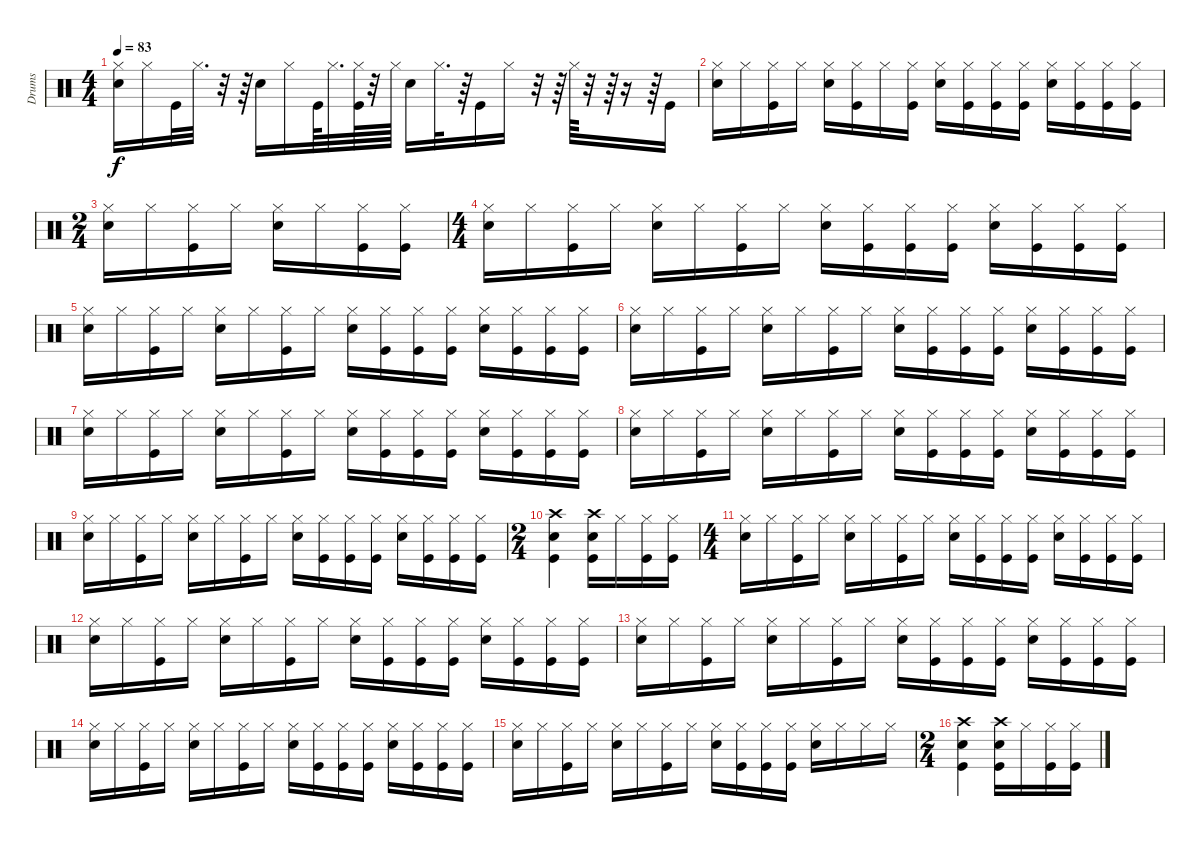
\track ("Drums" "Drums") {instrument percussion}
\staff {score}
\articulation defaults
\ts (4 4)
\tempo 83
\clef neutral
\ks c
("Snare (hit) 2" "Hi-Hat (closed)").16{dy f} "Hi-Hat (closed)".16 "Kick (hit)".32 "Hi-Hat (closed)".32{d} r.32 r.64 "Snare (hit) 2".16 "Hi-Hat (closed)".16 "Kick (hit)".64 "Hi-Hat (closed)".32{d} ("Kick (hit)" "Hi-Hat (closed)").64 r.32 "Hi-Hat (closed)".64 "Snare (hit) 2".16 "Hi-Hat (closed)".32{d} r.64 "Kick (hit)".16 "Hi-Hat (closed)".16 r.32 r.64 "Hi-Hat (closed)".64 r.32 r.64 r.16 r.64 "Kick (hit)".16 |
("Snare (hit) 2" "Hi-Hat (closed)").16 "Hi-Hat (closed)".16 ("Kick (hit)" "Hi-Hat (closed)").16 "Hi-Hat (closed)".16 ("Snare (hit) 2" "Hi-Hat (closed)").16 ("Kick (hit)" "Hi-Hat (closed)").16 "Hi-Hat (closed)".16 ("Kick (hit)" "Hi-Hat (closed)").16 ("Snare (hit) 2" "Hi-Hat (closed)").16 ("Kick (hit)" "Hi-Hat (closed)").16 ("Kick (hit)" "Hi-Hat (closed)").16 ("Kick (hit)" "Hi-Hat (closed)").16 ("Snare (hit) 2" "Hi-Hat (closed)").16 ("Kick (hit)" "Hi-Hat (closed)").16 ("Kick (hit)" "Hi-Hat (closed)").16 ("Kick (hit)" "Hi-Hat (closed)").16 |
\ts (2 4)
("Snare (hit) 2" "Hi-Hat (closed)").16 "Hi-Hat (closed)".16 ("Kick (hit)" "Hi-Hat (closed)").16 "Hi-Hat (closed)".16 ("Snare (hit) 2" "Hi-Hat (closed)").16 "Hi-Hat (closed)".16 ("Kick (hit)" "Hi-Hat (closed)").16 ("Kick (hit)" "Hi-Hat (closed)").16 |
\ts (4 4)
("Snare (hit) 2" "Hi-Hat (closed)").16 "Hi-Hat (closed)".16 ("Kick (hit)" "Hi-Hat (closed)").16 "Hi-Hat (closed)".16 ("Snare (hit) 2" "Hi-Hat (closed)").16 "Hi-Hat (closed)".16 ("Kick (hit)" "Hi-Hat (closed)").16 "Hi-Hat (closed)".16 ("Snare (hit) 2" "Hi-Hat (closed)").16 ("Kick (hit)" "Hi-Hat (closed)").16 ("Kick (hit)" "Hi-Hat (closed)").16 ("Kick (hit)" "Hi-Hat (closed)").16 ("Snare (hit) 2" "Hi-Hat (closed)").16 ("Kick (hit)" "Hi-Hat (closed)").16 ("Kick (hit)" "Hi-Hat (closed)").16 ("Kick (hit)" "Hi-Hat (closed)").16 |
("Snare (hit) 2" "Hi-Hat (closed)").16 "Hi-Hat (closed)".16 ("Kick (hit)" "Hi-Hat (closed)").16 "Hi-Hat (closed)".16 ("Snare (hit) 2" "Hi-Hat (closed)").16 "Hi-Hat (closed)".16 ("Kick (hit)" "Hi-Hat (closed)").16 "Hi-Hat (closed)".16 ("Snare (hit) 2" "Hi-Hat (closed)").16 ("Kick (hit)" "Hi-Hat (closed)").16 ("Kick (hit)" "Hi-Hat (closed)").16 ("Kick (hit)" "Hi-Hat (closed)").16 ("Snare (hit) 2" "Hi-Hat (closed)").16 ("Kick (hit)" "Hi-Hat (closed)").16 ("Kick (hit)" "Hi-Hat (closed)").16 ("Kick (hit)" "Hi-Hat (closed)").16 |
("Snare (hit) 2" "Hi-Hat (closed)").16 "Hi-Hat (closed)".16 ("Kick (hit)" "Hi-Hat (closed)").16 "Hi-Hat (closed)".16 ("Snare (hit) 2" "Hi-Hat (closed)").16 "Hi-Hat (closed)".16 ("Kick (hit)" "Hi-Hat (closed)").16 "Hi-Hat (closed)".16 ("Snare (hit) 2" "Hi-Hat (closed)").16 ("Kick (hit)" "Hi-Hat (closed)").16 ("Kick (hit)" "Hi-Hat (closed)").16 ("Kick (hit)" "Hi-Hat (closed)").16 ("Snare (hit) 2" "Hi-Hat (closed)").16 ("Kick (hit)" "Hi-Hat (closed)").16 ("Kick (hit)" "Hi-Hat (closed)").16 ("Kick (hit)" "Hi-Hat (closed)").16 |
("Snare (hit) 2" "Hi-Hat (closed)").16 "Hi-Hat (closed)".16 ("Kick (hit)" "Hi-Hat (closed)").16 "Hi-Hat (closed)".16 ("Snare (hit) 2" "Hi-Hat (closed)").16 "Hi-Hat (closed)".16 ("Kick (hit)" "Hi-Hat (closed)").16 "Hi-Hat (closed)".16 ("Snare (hit) 2" "Hi-Hat (closed)").16 ("Kick (hit)" "Hi-Hat (closed)").16 ("Kick (hit)" "Hi-Hat (closed)").16 ("Kick (hit)" "Hi-Hat (closed)").16 ("Snare (hit) 2" "Hi-Hat (closed)").16 ("Kick (hit)" "Hi-Hat (closed)").16 ("Kick (hit)" "Hi-Hat (closed)").16 ("Kick (hit)" "Hi-Hat (closed)").16 |
("Snare (hit) 2" "Hi-Hat (closed)").16 "Hi-Hat (closed)".16 ("Kick (hit)" "Hi-Hat (closed)").16 "Hi-Hat (closed)".16 ("Snare (hit) 2" "Hi-Hat (closed)").16 "Hi-Hat (closed)".16 ("Kick (hit)" "Hi-Hat (closed)").16 "Hi-Hat (closed)".16 ("Snare (hit) 2" "Hi-Hat (closed)").16 ("Kick (hit)" "Hi-Hat (closed)").16 ("Kick (hit)" "Hi-Hat (closed)").16 ("Kick (hit)" "Hi-Hat (closed)").16 ("Snare (hit) 2" "Hi-Hat (closed)").16 ("Kick (hit)" "Hi-Hat (closed)").16 ("Kick (hit)" "Hi-Hat (closed)").16 ("Kick (hit)" "Hi-Hat (closed)").16 |
("Snare (hit) 2" "Hi-Hat (closed)").16 "Hi-Hat (closed)".16 ("Kick (hit)" "Hi-Hat (closed)").16 "Hi-Hat (closed)".16 ("Snare (hit) 2" "Hi-Hat (closed)").16 "Hi-Hat (closed)".16 ("Kick (hit)" "Hi-Hat (closed)").16 "Hi-Hat (closed)".16 ("Snare (hit) 2" "Hi-Hat (closed)").16 ("Kick (hit)" "Hi-Hat (closed)").16 ("Kick (hit)" "Hi-Hat (closed)").16 ("Kick (hit)" "Hi-Hat (closed)").16 ("Snare (hit) 2" "Hi-Hat (closed)").16 ("Kick (hit)" "Hi-Hat (closed)").16 ("Kick (hit)" "Hi-Hat (closed)").16 ("Kick (hit)" "Hi-Hat (closed)").16 |
\ts (2 4)
("Kick (hit)" "Snare (hit) 2" "Crash high (hit)").4 ("Kick (hit)" "Snare (hit) 2" "Crash high (hit)").16 "Hi-Hat (closed)".16 ("Kick (hit)" "Hi-Hat (closed)").16 ("Kick (hit)" "Hi-Hat (closed)").16 |
\ts (4 4)
("Snare (hit) 2" "Hi-Hat (closed)").16 "Hi-Hat (closed)".16 ("Kick (hit)" "Hi-Hat (closed)").16 "Hi-Hat (closed)".16 ("Snare (hit) 2" "Hi-Hat (closed)").16 "Hi-Hat (closed)".16 ("Kick (hit)" "Hi-Hat (closed)").16 "Hi-Hat (closed)".16 ("Snare (hit) 2" "Hi-Hat (closed)").16 ("Kick (hit)" "Hi-Hat (closed)").16 ("Kick (hit)" "Hi-Hat (closed)").16 ("Kick (hit)" "Hi-Hat (closed)").16 ("Snare (hit) 2" "Hi-Hat (closed)").16 ("Kick (hit)" "Hi-Hat (closed)").16 ("Kick (hit)" "Hi-Hat (closed)").16 ("Kick (hit)" "Hi-Hat (closed)").16 |
("Snare (hit) 2" "Hi-Hat (closed)").16 "Hi-Hat (closed)".16 ("Kick (hit)" "Hi-Hat (closed)").16 "Hi-Hat (closed)".16 ("Snare (hit) 2" "Hi-Hat (closed)").16 "Hi-Hat (closed)".16 ("Kick (hit)" "Hi-Hat (closed)").16 "Hi-Hat (closed)".16 ("Snare (hit) 2" "Hi-Hat (closed)").16 ("Kick (hit)" "Hi-Hat (closed)").16 ("Kick (hit)" "Hi-Hat (closed)").16 ("Kick (hit)" "Hi-Hat (closed)").16 ("Snare (hit) 2" "Hi-Hat (closed)").16 ("Kick (hit)" "Hi-Hat (closed)").16 ("Kick (hit)" "Hi-Hat (closed)").16 ("Kick (hit)" "Hi-Hat (closed)").16 |
("Snare (hit) 2" "Hi-Hat (closed)").16 "Hi-Hat (closed)".16 ("Kick (hit)" "Hi-Hat (closed)").16 "Hi-Hat (closed)".16 ("Snare (hit) 2" "Hi-Hat (closed)").16 "Hi-Hat (closed)".16 ("Kick (hit)" "Hi-Hat (closed)").16 "Hi-Hat (closed)".16 ("Snare (hit) 2" "Hi-Hat (closed)").16 ("Kick (hit)" "Hi-Hat (closed)").16 ("Kick (hit)" "Hi-Hat (closed)").16 ("Kick (hit)" "Hi-Hat (closed)").16 ("Snare (hit) 2" "Hi-Hat (closed)").16 ("Kick (hit)" "Hi-Hat (closed)").16 ("Kick (hit)" "Hi-Hat (closed)").16 ("Kick (hit)" "Hi-Hat (closed)").16 |
("Snare (hit) 2" "Hi-Hat (closed)").16 "Hi-Hat (closed)".16 ("Kick (hit)" "Hi-Hat (closed)").16 "Hi-Hat (closed)".16 ("Snare (hit) 2" "Hi-Hat (closed)").16 "Hi-Hat (closed)".16 ("Kick (hit)" "Hi-Hat (closed)").16 "Hi-Hat (closed)".16 ("Snare (hit) 2" "Hi-Hat (closed)").16 ("Kick (hit)" "Hi-Hat (closed)").16 ("Kick (hit)" "Hi-Hat (closed)").16 ("Kick (hit)" "Hi-Hat (closed)").16 ("Snare (hit) 2" "Hi-Hat (closed)").16 ("Kick (hit)" "Hi-Hat (closed)").16 ("Kick (hit)" "Hi-Hat (closed)").16 ("Kick (hit)" "Hi-Hat (closed)").16 |
("Snare (hit) 2" "Hi-Hat (closed)").16 "Hi-Hat (closed)".16 ("Kick (hit)" "Hi-Hat (closed)").16 "Hi-Hat (closed)".16 ("Snare (hit) 2" "Hi-Hat (closed)").16 "Hi-Hat (closed)".16 ("Kick (hit)" "Hi-Hat (closed)").16 "Hi-Hat (closed)".16 ("Snare (hit) 2" "Hi-Hat (closed)").16 ("Kick (hit)" "Hi-Hat (closed)").16 ("Kick (hit)" "Hi-Hat (closed)").16 ("Kick (hit)" "Hi-Hat (closed)").16 ("Snare (hit) 2" "Hi-Hat (closed)").16 "Hi-Hat (closed)".16 "Hi-Hat (closed)".16 "Hi-Hat (closed)".16 |
\ts (2 4)
("Kick (hit)" "Snare (hit) 2" "Crash high (hit)").4 ("Kick (hit)" "Snare (hit) 2" "Crash high (hit)").16 "Hi-Hat (closed)".16 ("Kick (hit)" "Hi-Hat (closed)").16 ("Kick (hit)" "Hi-Hat (closed)").16
